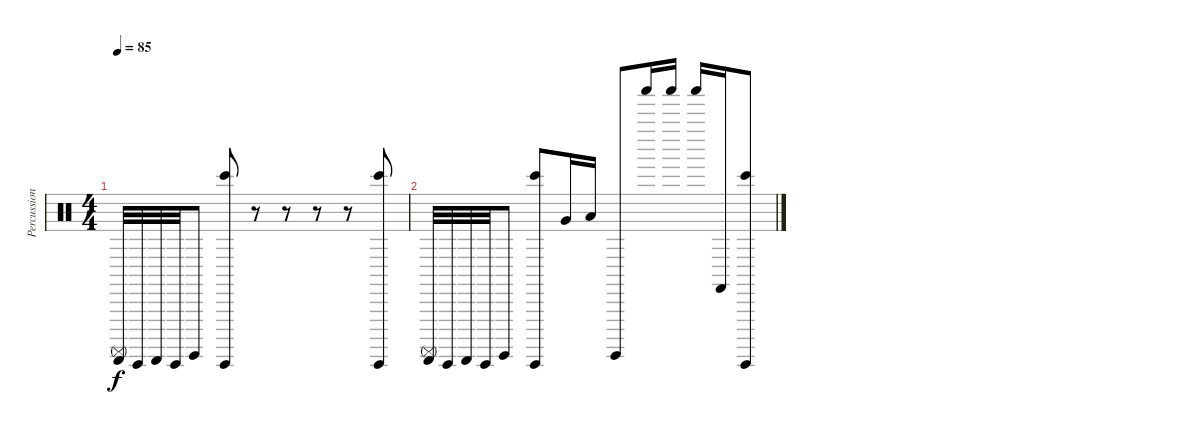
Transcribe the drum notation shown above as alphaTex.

\track ("Percussion" "Percussion") {instrument percussion}
\staff {score}
\articulation defaults
\ts (4 4)
\tempo 85
\clef neutral
\ks c
("Guiro (scrap-return)" "Surdo (mute)").32{dy f} "Guiro (hit)".32 "Guiro (scrap-return)".32 "Guiro (hit)".32 "Surdo (hit)".8 ("Bongo High (hit)" "Guiro (hit)").8 r.8 r.8 r.8 r.8 ("Bongo High (hit)" "Guiro (hit)").8 |
("Guiro (scrap-return)" "Surdo (mute)").32 "Guiro (hit)".32 "Guiro (scrap-return)".32 "Guiro (hit)".32 "Surdo (hit)".8 ("Bongo High (hit)" "Guiro (hit)").8 "Very Low Tom (hit)".16 "Low Floor Tom (hit)".16 "Surdo (hit)".8 "Shaker (hit)".16 "Shaker (hit)".16 "Shaker (hit)".16 "Castanets (hit)".16 ("Bongo High (hit)" "Guiro (hit)").8
